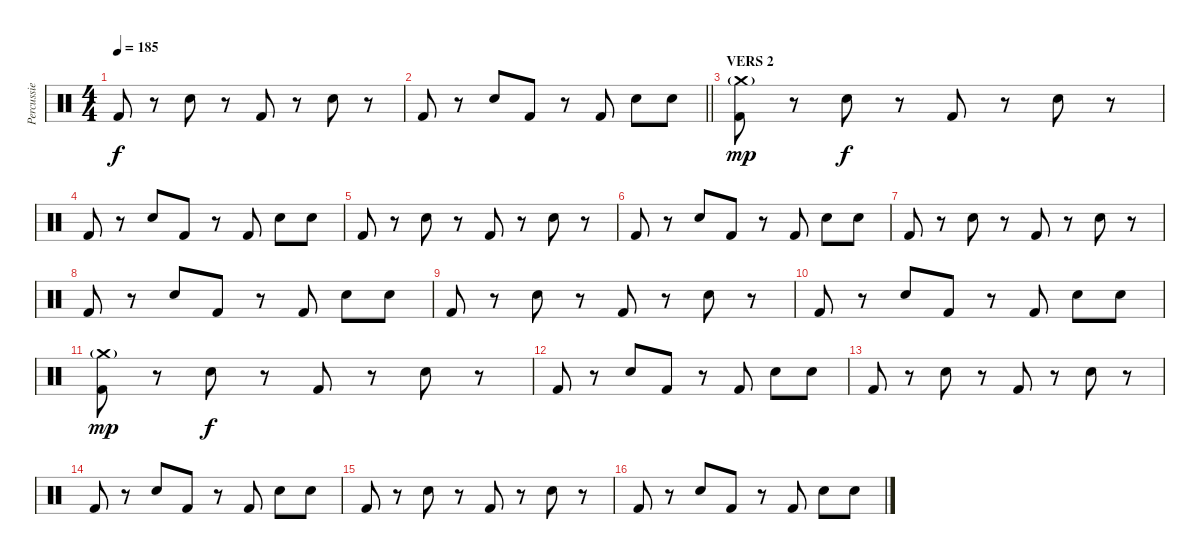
\track ("Percussie" "Percussie") {instrument percussion}
\staff {score}
\articulation defaults
\ts (4 4)
\tempo 185
\clef neutral
\ks c "Kick (hit) 2".8{dy f}
r.8 "Snare (hit) 2".8 r.8 "Kick (hit) 2".8 r.8 "Snare (hit) 2".8 r.8 |
\barLineRight lightlight "Kick (hit) 2".8
r.8 "Snare (hit) 2".8 "Kick (hit) 2".8 r.8 "Kick (hit) 2".8 "Snare (hit) 2".8 "Snare (hit) 2".8 |
\section ("" "VERS 2")
("Crash medium (hit)"{g} "Kick (hit) 2").8{dy mp} r.8 "Snare (hit) 2".8{dy f} r.8 "Kick (hit) 2".8 r.8 "Snare (hit) 2".8 r.8 |
"Kick (hit) 2".8 r.8 "Snare (hit) 2".8 "Kick (hit) 2".8 r.8 "Kick (hit) 2".8 "Snare (hit) 2".8 "Snare (hit) 2".8 |
"Kick (hit) 2".8 r.8 "Snare (hit) 2".8 r.8 "Kick (hit) 2".8 r.8 "Snare (hit) 2".8 r.8 |
"Kick (hit) 2".8 r.8 "Snare (hit) 2".8 "Kick (hit) 2".8 r.8 "Kick (hit) 2".8 "Snare (hit) 2".8 "Snare (hit) 2".8 |
"Kick (hit) 2".8 r.8 "Snare (hit) 2".8 r.8 "Kick (hit) 2".8 r.8 "Snare (hit) 2".8 r.8 |
"Kick (hit) 2".8 r.8 "Snare (hit) 2".8 "Kick (hit) 2".8 r.8 "Kick (hit) 2".8 "Snare (hit) 2".8 "Snare (hit) 2".8 |
"Kick (hit) 2".8 r.8 "Snare (hit) 2".8 r.8 "Kick (hit) 2".8 r.8 "Snare (hit) 2".8 r.8 |
"Kick (hit) 2".8 r.8 "Snare (hit) 2".8 "Kick (hit) 2".8 r.8 "Kick (hit) 2".8 "Snare (hit) 2".8 "Snare (hit) 2".8 |
("Crash medium (hit)"{g} "Kick (hit) 2").8{dy mp} r.8 "Snare (hit) 2".8{dy f} r.8 "Kick (hit) 2".8 r.8 "Snare (hit) 2".8 r.8 |
"Kick (hit) 2".8 r.8 "Snare (hit) 2".8 "Kick (hit) 2".8 r.8 "Kick (hit) 2".8 "Snare (hit) 2".8 "Snare (hit) 2".8 |
"Kick (hit) 2".8 r.8 "Snare (hit) 2".8 r.8 "Kick (hit) 2".8 r.8 "Snare (hit) 2".8 r.8 |
"Kick (hit) 2".8 r.8 "Snare (hit) 2".8 "Kick (hit) 2".8 r.8 "Kick (hit) 2".8 "Snare (hit) 2".8 "Snare (hit) 2".8 |
"Kick (hit) 2".8 r.8 "Snare (hit) 2".8 r.8 "Kick (hit) 2".8 r.8 "Snare (hit) 2".8 r.8 |
"Kick (hit) 2".8 r.8 "Snare (hit) 2".8 "Kick (hit) 2".8 r.8 "Kick (hit) 2".8 "Snare (hit) 2".8 "Snare (hit) 2".8
